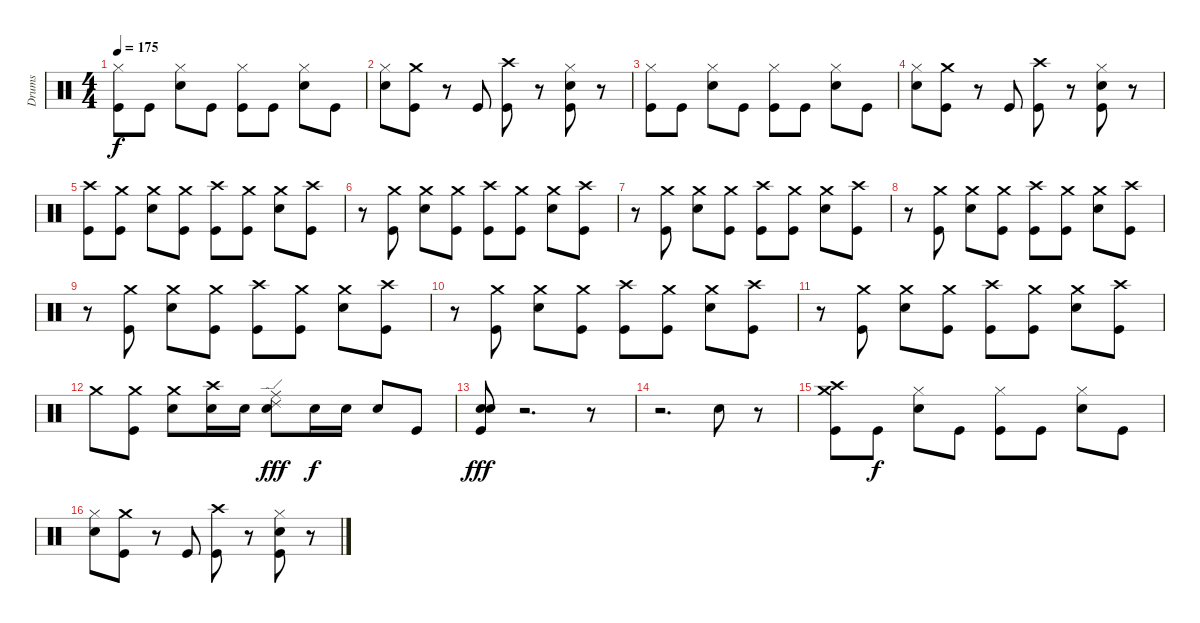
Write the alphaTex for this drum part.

\track ("Drums" "Drums") {instrument percussion}
\staff {score}
\articulation defaults
\ts (4 4)
\tempo 175
\clef neutral
\ks c
("Hi-Hat (closed)" "Kick (hit)").8{dy f} "Kick (hit)".8 ("Hi-Hat (closed)" "Electric Snare (hit)").8 "Kick (hit)".8 ("Hi-Hat (closed)" "Kick (hit)").8 "Kick (hit)".8 ("Hi-Hat (closed)" "Electric Snare (hit)").8 "Kick (hit)".8 |
("Electric Snare (hit)" "Hi-Hat (closed)").8 ("Crash medium (hit)" "Kick (hit)").8 r.8 "Kick (hit)".8 ("Crash high (hit)" "Kick (hit)").8 r.8 ("Hi-Hat (closed)" "Snare (hit) 2" "Kick (hit)").8 r.8 |
("Hi-Hat (closed)" "Kick (hit)").8 "Kick (hit)".8 ("Hi-Hat (closed)" "Electric Snare (hit)").8 "Kick (hit)".8 ("Hi-Hat (closed)" "Kick (hit)").8 "Kick (hit)".8 ("Hi-Hat (closed)" "Electric Snare (hit)").8 "Kick (hit)".8 |
("Electric Snare (hit)" "Hi-Hat (closed)").8 ("Crash medium (hit)" "Kick (hit)").8 r.8 "Kick (hit)".8 ("Crash high (hit)" "Kick (hit)").8 r.8 ("Hi-Hat (closed)" "Snare (hit) 2" "Kick (hit)").8 r.8 |
("Crash high (hit)" "Kick (hit)").8 ("Crash medium (hit)" "Kick (hit)").8 ("Crash medium (hit)" "Snare (hit) 2").8 ("Crash medium (hit)" "Kick (hit)").8 ("Crash high (hit)" "Kick (hit)").8 ("Crash medium (hit)" "Kick (hit)").8 ("Crash medium (hit)" "Snare (hit) 2").8 ("Crash high (hit)" "Kick (hit)").8 |
r.8 ("Crash medium (hit)" "Kick (hit)").8 ("Crash medium (hit)" "Snare (hit) 2").8 ("Crash medium (hit)" "Kick (hit)").8 ("Crash high (hit)" "Kick (hit)").8 ("Crash medium (hit)" "Kick (hit)").8 ("Crash medium (hit)" "Snare (hit) 2").8 ("Crash high (hit)" "Kick (hit)").8 |
r.8 ("Crash medium (hit)" "Kick (hit)").8 ("Crash medium (hit)" "Snare (hit) 2").8 ("Crash medium (hit)" "Kick (hit)").8 ("Crash high (hit)" "Kick (hit)").8 ("Crash medium (hit)" "Kick (hit)").8 ("Crash medium (hit)" "Snare (hit) 2").8 ("Crash high (hit)" "Kick (hit)").8 |
r.8 ("Crash medium (hit)" "Kick (hit)").8 ("Crash medium (hit)" "Snare (hit) 2").8 ("Crash medium (hit)" "Kick (hit)").8 ("Crash high (hit)" "Kick (hit)").8 ("Crash medium (hit)" "Kick (hit)").8 ("Crash medium (hit)" "Snare (hit) 2").8 ("Crash high (hit)" "Kick (hit)").8 |
r.8 ("Crash medium (hit)" "Kick (hit)").8 ("Crash medium (hit)" "Snare (hit) 2").8 ("Crash medium (hit)" "Kick (hit)").8 ("Crash high (hit)" "Kick (hit)").8 ("Crash medium (hit)" "Kick (hit)").8 ("Crash medium (hit)" "Snare (hit) 2").8 ("Crash high (hit)" "Kick (hit)").8 |
r.8 ("Crash medium (hit)" "Kick (hit)").8 ("Crash medium (hit)" "Snare (hit) 2").8 ("Crash medium (hit)" "Kick (hit)").8 ("Crash high (hit)" "Kick (hit)").8 ("Crash medium (hit)" "Kick (hit)").8 ("Crash medium (hit)" "Snare (hit) 2").8 ("Crash high (hit)" "Kick (hit)").8 |
r.8 ("Crash medium (hit)" "Kick (hit)").8 ("Crash medium (hit)" "Snare (hit) 2").8 ("Crash medium (hit)" "Kick (hit)").8 ("Crash high (hit)" "Kick (hit)").8 ("Crash medium (hit)" "Kick (hit)").8 ("Crash medium (hit)" "Snare (hit) 2").8 ("Crash high (hit)" "Kick (hit)").8 |
"Crash medium (hit)".8 ("Kick (hit)" "Crash medium (hit)").8 ("Electric Snare (hit)" "Crash medium (hit)").8 ("Snare (hit) 2" "Crash high (hit)").16 "Snare (hit) 2".16 ("Snare (hit) 2" "Ride (middle)" "Ride (edge) 2").8{dy fff} "Snare (hit) 2".16{dy f} "Snare (hit) 2".16 "Snare (hit) 2".8 "Kick (hit)".8 |
("Kick (hit)" "Electric Snare (hit)" "Snare (hit) 2").8{dy fff} r.2{d} r.8 |
r.2{d} "Electric Snare (hit)".8 r.8 |
("Crash high (hit)" "Crash medium (hit)" "Kick (hit)").8 "Kick (hit)".8{dy f} ("Hi-Hat (closed)" "Electric Snare (hit)").8 "Kick (hit)".8 ("Hi-Hat (closed)" "Kick (hit)").8 "Kick (hit)".8 ("Hi-Hat (closed)" "Electric Snare (hit)").8 "Kick (hit)".8 |
("Electric Snare (hit)" "Hi-Hat (closed)").8 ("Crash medium (hit)" "Kick (hit)").8 r.8 "Kick (hit)".8 ("Crash high (hit)" "Kick (hit)").8 r.8 ("Hi-Hat (closed)" "Snare (hit) 2" "Kick (hit)").8 r.8
